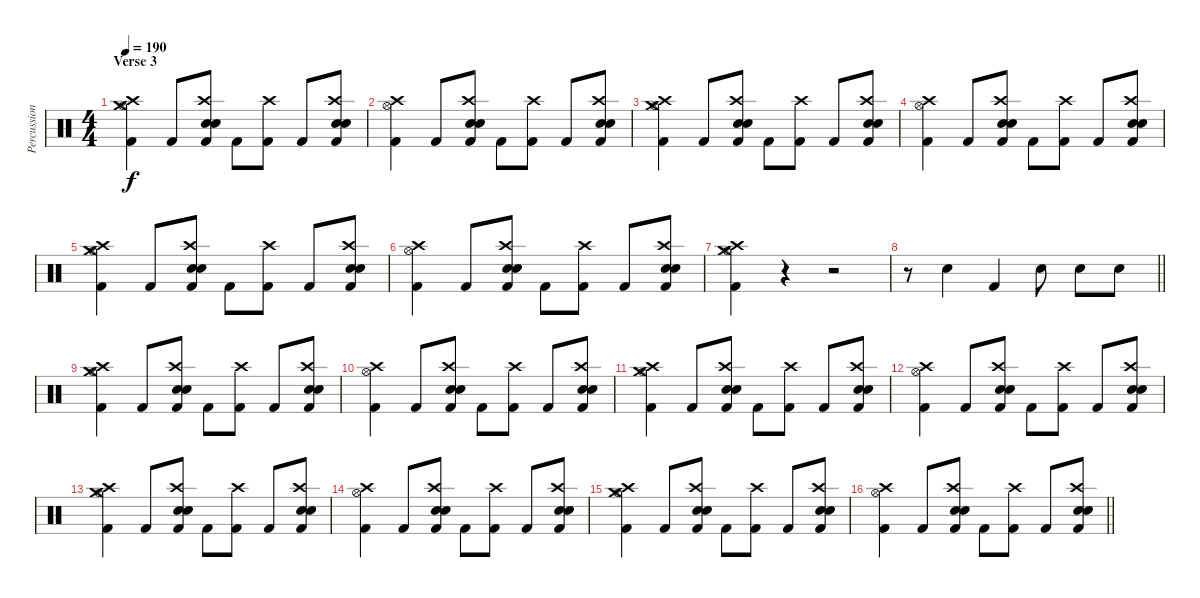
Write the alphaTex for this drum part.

\track ("Percussion" "Percussion") {instrument percussion}
\staff {score}
\articulation defaults
\ts (4 4)
\section ("" "Verse 3")
\tempo 190
\clef neutral
\ks c
("Hi-Hat (open)" "Kick (hit) 2" "Crash medium (hit)" "Crash high (hit)").4{dy f} "Kick (hit) 2".8 ("Electric Snare (hit)" "Snare (hit) 2" "Kick (hit) 2" "Crash high (hit)").8 "Kick (hit) 2".8 ("Kick (hit) 2" "Crash high (hit)").8 "Kick (hit) 2".8 ("Electric Snare (hit)" "Snare (hit) 2" "Kick (hit) 2" "Crash high (hit)").8 |
("Hi-Hat (open)" "Kick (hit) 2" "Crash high (hit)").4 "Kick (hit) 2".8 ("Electric Snare (hit)" "Snare (hit) 2" "Kick (hit) 2" "Crash high (hit)").8 "Kick (hit) 2".8 ("Kick (hit) 2" "Crash high (hit)").8 "Kick (hit) 2".8 ("Electric Snare (hit)" "Snare (hit) 2" "Kick (hit) 2" "Crash high (hit)").8 |
("Hi-Hat (open)" "Kick (hit) 2" "Crash medium (hit)" "Crash high (hit)").4 "Kick (hit) 2".8 ("Electric Snare (hit)" "Snare (hit) 2" "Kick (hit) 2" "Crash high (hit)").8 "Kick (hit) 2".8 ("Kick (hit) 2" "Crash high (hit)").8 "Kick (hit) 2".8 ("Electric Snare (hit)" "Snare (hit) 2" "Kick (hit) 2" "Crash high (hit)").8 |
("Hi-Hat (open)" "Kick (hit) 2" "Crash high (hit)").4 "Kick (hit) 2".8 ("Electric Snare (hit)" "Snare (hit) 2" "Kick (hit) 2" "Crash high (hit)").8 "Kick (hit) 2".8 ("Kick (hit) 2" "Crash high (hit)").8 "Kick (hit) 2".8 ("Electric Snare (hit)" "Snare (hit) 2" "Kick (hit) 2" "Crash high (hit)").8 |
("Hi-Hat (open)" "Kick (hit) 2" "Crash medium (hit)" "Crash high (hit)").4 "Kick (hit) 2".8 ("Electric Snare (hit)" "Snare (hit) 2" "Kick (hit) 2" "Crash high (hit)").8 "Kick (hit) 2".8 ("Kick (hit) 2" "Crash high (hit)").8 "Kick (hit) 2".8 ("Electric Snare (hit)" "Snare (hit) 2" "Kick (hit) 2" "Crash high (hit)").8 |
("Hi-Hat (open)" "Kick (hit) 2" "Crash high (hit)").4 "Kick (hit) 2".8 ("Electric Snare (hit)" "Snare (hit) 2" "Kick (hit) 2" "Crash high (hit)").8 "Kick (hit) 2".8 ("Kick (hit) 2" "Crash high (hit)").8 "Kick (hit) 2".8 ("Electric Snare (hit)" "Snare (hit) 2" "Kick (hit) 2" "Crash high (hit)").8 |
("Hi-Hat (open)" "Kick (hit) 2" "Crash medium (hit)" "Crash high (hit)").4 r.4 r.2 |
\barLineRight lightlight
r.8 "Snare (hit) 2".4 "Kick (hit) 2".4 "Snare (hit) 2".8 "Snare (hit) 2".8 "Snare (hit) 2".8 |
("Hi-Hat (open)" "Kick (hit) 2" "Crash medium (hit)" "Crash high (hit)").4 "Kick (hit) 2".8 ("Electric Snare (hit)" "Snare (hit) 2" "Kick (hit) 2" "Crash high (hit)").8 "Kick (hit) 2".8 ("Kick (hit) 2" "Crash high (hit)").8 "Kick (hit) 2".8 ("Electric Snare (hit)" "Snare (hit) 2" "Kick (hit) 2" "Crash high (hit)").8 |
("Hi-Hat (open)" "Kick (hit) 2" "Crash high (hit)").4 "Kick (hit) 2".8 ("Electric Snare (hit)" "Snare (hit) 2" "Kick (hit) 2" "Crash high (hit)").8 "Kick (hit) 2".8 ("Kick (hit) 2" "Crash high (hit)").8 "Kick (hit) 2".8 ("Electric Snare (hit)" "Snare (hit) 2" "Kick (hit) 2" "Crash high (hit)").8 |
("Hi-Hat (open)" "Kick (hit) 2" "Crash medium (hit)" "Crash high (hit)").4 "Kick (hit) 2".8 ("Electric Snare (hit)" "Snare (hit) 2" "Kick (hit) 2" "Crash high (hit)").8 "Kick (hit) 2".8 ("Kick (hit) 2" "Crash high (hit)").8 "Kick (hit) 2".8 ("Electric Snare (hit)" "Snare (hit) 2" "Kick (hit) 2" "Crash high (hit)").8 |
("Hi-Hat (open)" "Kick (hit) 2" "Crash high (hit)").4 "Kick (hit) 2".8 ("Electric Snare (hit)" "Snare (hit) 2" "Kick (hit) 2" "Crash high (hit)").8 "Kick (hit) 2".8 ("Kick (hit) 2" "Crash high (hit)").8 "Kick (hit) 2".8 ("Electric Snare (hit)" "Snare (hit) 2" "Kick (hit) 2" "Crash high (hit)").8 |
("Hi-Hat (open)" "Kick (hit) 2" "Crash medium (hit)" "Crash high (hit)").4 "Kick (hit) 2".8 ("Electric Snare (hit)" "Snare (hit) 2" "Kick (hit) 2" "Crash high (hit)").8 "Kick (hit) 2".8 ("Kick (hit) 2" "Crash high (hit)").8 "Kick (hit) 2".8 ("Electric Snare (hit)" "Snare (hit) 2" "Kick (hit) 2" "Crash high (hit)").8 |
("Hi-Hat (open)" "Kick (hit) 2" "Crash high (hit)").4 "Kick (hit) 2".8 ("Electric Snare (hit)" "Snare (hit) 2" "Kick (hit) 2" "Crash high (hit)").8 "Kick (hit) 2".8 ("Kick (hit) 2" "Crash high (hit)").8 "Kick (hit) 2".8 ("Electric Snare (hit)" "Snare (hit) 2" "Kick (hit) 2" "Crash high (hit)").8 |
("Hi-Hat (open)" "Kick (hit) 2" "Crash medium (hit)" "Crash high (hit)").4 "Kick (hit) 2".8 ("Electric Snare (hit)" "Snare (hit) 2" "Kick (hit) 2" "Crash high (hit)").8 "Kick (hit) 2".8 ("Kick (hit) 2" "Crash high (hit)").8 "Kick (hit) 2".8 ("Electric Snare (hit)" "Snare (hit) 2" "Kick (hit) 2" "Crash high (hit)").8 |
\barLineRight lightlight
("Hi-Hat (open)" "Kick (hit) 2" "Crash high (hit)").4 "Kick (hit) 2".8 ("Electric Snare (hit)" "Snare (hit) 2" "Kick (hit) 2" "Crash high (hit)").8 "Kick (hit) 2".8 ("Kick (hit) 2" "Crash high (hit)").8 "Kick (hit) 2".8 ("Electric Snare (hit)" "Snare (hit) 2" "Kick (hit) 2" "Crash high (hit)").8
